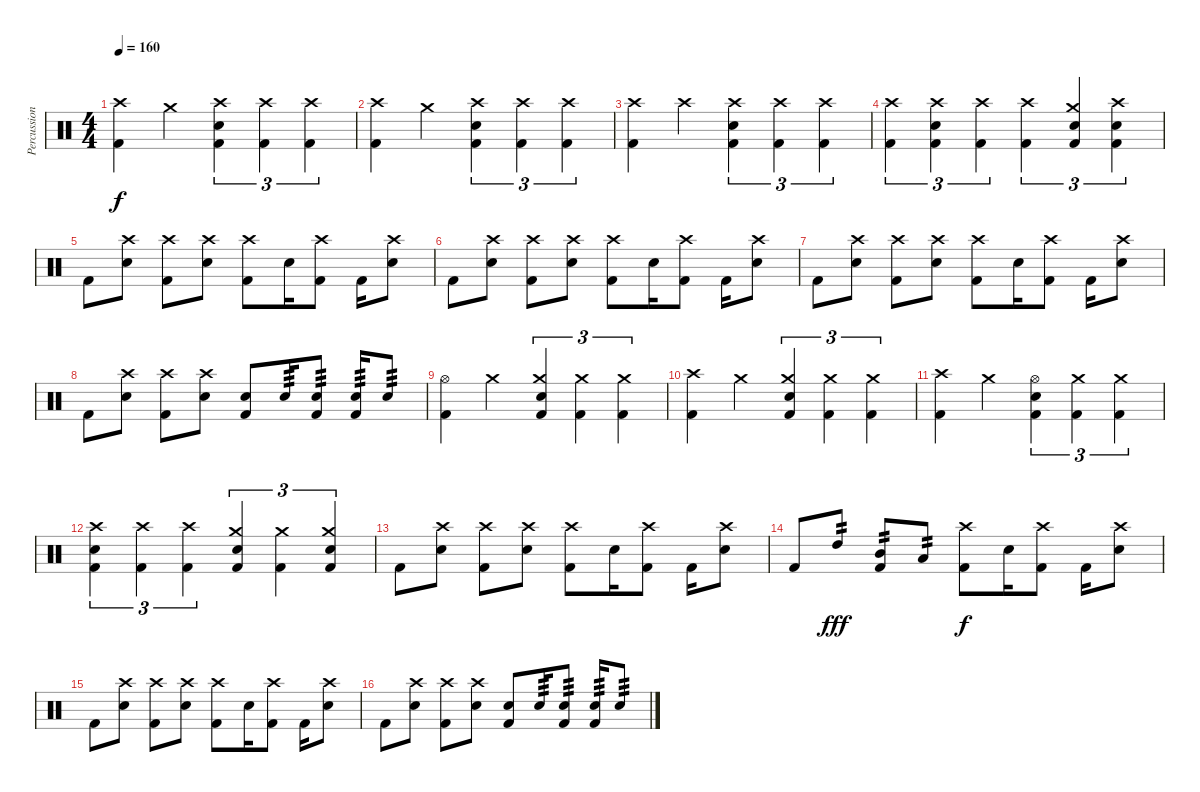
\track ("Percussion" "Percussion") {instrument percussion}
\staff {score}
\articulation defaults
\ts (4 4)
\tempo 160
\clef neutral
\ks c
("Crash high (hit)" "Kick (hit) 2").4{dy f} "Crash medium (hit)".4 ("Crash high (hit)" "Electric Snare (hit)" "Kick (hit) 2").4{tu (3 2)} ("Crash high (hit)" "Kick (hit) 2").4{tu (3 2)} ("Crash high (hit)" "Kick (hit) 2").4{tu (3 2)} |
("Crash high (hit)" "Kick (hit) 2").4 "Crash medium (hit)".4 ("Crash high (hit)" "Electric Snare (hit)" "Kick (hit) 2").4{tu (3 2)} ("Crash high (hit)" "Kick (hit) 2").4{tu (3 2)} ("Crash high (hit)" "Kick (hit) 2").4{tu (3 2)} |
("Crash high (hit)" "Kick (hit) 2").4 "Crash high (hit)".4 ("Crash high (hit)" "Electric Snare (hit)" "Kick (hit) 2").4{tu (3 2)} ("Crash high (hit)" "Kick (hit) 2").4{tu (3 2)} ("Crash high (hit)" "Kick (hit) 2").4{tu (3 2)} |
("Crash high (hit)" "Kick (hit) 2").4{tu (3 2)} ("Crash high (hit)" "Electric Snare (hit)" "Kick (hit) 2").4{tu (3 2)} ("Crash high (hit)" "Kick (hit) 2").4{tu (3 2)} ("Crash high (hit)" "Kick (hit) 2").4{tu (3 2)} ("Crash medium (hit)" "Electric Snare (hit)" "Kick (hit) 2").4{tu (3 2)} ("Crash high (hit)" "Electric Snare (hit)" "Kick (hit) 2").4{tu (3 2)} |
"Kick (hit) 2".8 ("Crash high (hit)" "Electric Snare (hit)").8 ("Crash high (hit)" "Kick (hit) 2").8 ("Crash high (hit)" "Electric Snare (hit)").8 ("Crash high (hit)" "Kick (hit) 2").8 "Electric Snare (hit)".16 ("Crash high (hit)" "Kick (hit) 2").8 "Kick (hit) 2".16 ("Crash high (hit)" "Electric Snare (hit)").8 |
"Kick (hit) 2".8 ("Crash high (hit)" "Electric Snare (hit)").8 ("Crash high (hit)" "Kick (hit) 2").8 ("Crash high (hit)" "Electric Snare (hit)").8 ("Crash high (hit)" "Kick (hit) 2").8 "Electric Snare (hit)".16 ("Crash high (hit)" "Kick (hit) 2").8 "Kick (hit) 2".16 ("Crash high (hit)" "Electric Snare (hit)").8 |
"Kick (hit) 2".8 ("Crash high (hit)" "Electric Snare (hit)").8 ("Crash high (hit)" "Kick (hit) 2").8 ("Crash high (hit)" "Electric Snare (hit)").8 ("Crash high (hit)" "Kick (hit) 2").8 "Electric Snare (hit)".16 ("Crash high (hit)" "Kick (hit) 2").8 "Kick (hit) 2".16 ("Crash high (hit)" "Electric Snare (hit)").8 |
"Kick (hit) 2".8 ("Crash high (hit)" "Electric Snare (hit)").8 ("Crash high (hit)" "Kick (hit) 2").8 ("Crash high (hit)" "Electric Snare (hit)").8 ("Electric Snare (hit)" "Kick (hit) 2").8 "Electric Snare (hit)".16{tp 3} ("Electric Snare (hit)" "Kick (hit) 2").8{tp 3} ("Electric Snare (hit)" "Kick (hit) 2").16{tp 3} "Electric Snare (hit)".8{tp 3} |
("Hi-Hat (open)" "Kick (hit) 2").4 "Crash medium (hit)".4 ("Crash medium (hit)" "Electric Snare (hit)" "Kick (hit) 2").4{tu (3 2)} ("Crash medium (hit)" "Kick (hit) 2").4{tu (3 2)} ("Crash medium (hit)" "Kick (hit) 2").4{tu (3 2)} |
("Crash high (hit)" "Kick (hit) 2").4 "Crash medium (hit)".4 ("Crash medium (hit)" "Electric Snare (hit)" "Kick (hit) 2").4{tu (3 2)} ("Crash medium (hit)" "Kick (hit) 2").4{tu (3 2)} ("Crash medium (hit)" "Kick (hit) 2").4{tu (3 2)} |
("Crash high (hit)" "Kick (hit) 2").4 "Crash medium (hit)".4 ("Hi-Hat (open)" "Electric Snare (hit)" "Kick (hit) 2").4{tu (3 2)} ("Crash medium (hit)" "Kick (hit) 2").4{tu (3 2)} ("Crash medium (hit)" "Kick (hit) 2").4{tu (3 2)} |
("Crash high (hit)" "Electric Snare (hit)" "Kick (hit) 2").4{tu (3 2)} ("Crash high (hit)" "Kick (hit) 2").4{tu (3 2)} ("Crash high (hit)" "Kick (hit) 2").4{tu (3 2)} ("Crash medium (hit)" "Electric Snare (hit)" "Kick (hit) 2").4{tu (3 2)} ("Crash medium (hit)" "Kick (hit) 2").4{tu (3 2)} ("Crash medium (hit)" "Electric Snare (hit)" "Kick (hit) 2").4{tu (3 2)} |
"Kick (hit) 2".8 ("Crash high (hit)" "Electric Snare (hit)").8 ("Crash high (hit)" "Kick (hit) 2").8 ("Crash high (hit)" "Electric Snare (hit)").8 ("Crash high (hit)" "Kick (hit) 2").8 "Electric Snare (hit)".16 ("Crash high (hit)" "Kick (hit) 2").8 "Kick (hit) 2".16 ("Crash high (hit)" "Electric Snare (hit)").8 |
"Kick (hit) 2".8 "High Tom (hit)".8{tp 2 dy fff} ("Mid Tom (hit)" "Kick (hit) 2").8{tp 2} "Low Tom (hit)".8{tp 2} ("Crash high (hit)" "Kick (hit) 2").8{dy f} "Electric Snare (hit)".16 ("Crash high (hit)" "Kick (hit) 2").8 "Kick (hit) 2".16 ("Crash high (hit)" "Electric Snare (hit)").8 |
"Kick (hit) 2".8 ("Crash high (hit)" "Electric Snare (hit)").8 ("Crash high (hit)" "Kick (hit) 2").8 ("Crash high (hit)" "Electric Snare (hit)").8 ("Crash high (hit)" "Kick (hit) 2").8 "Electric Snare (hit)".16 ("Crash high (hit)" "Kick (hit) 2").8 "Kick (hit) 2".16 ("Crash high (hit)" "Electric Snare (hit)").8 |
"Kick (hit) 2".8 ("Crash high (hit)" "Electric Snare (hit)").8 ("Crash high (hit)" "Kick (hit) 2").8 ("Crash high (hit)" "Electric Snare (hit)").8 ("Electric Snare (hit)" "Kick (hit) 2").8 "Electric Snare (hit)".16{tp 3} ("Electric Snare (hit)" "Kick (hit) 2").8{tp 3} ("Electric Snare (hit)" "Kick (hit) 2").16{tp 3} "Electric Snare (hit)".8{tp 3}
